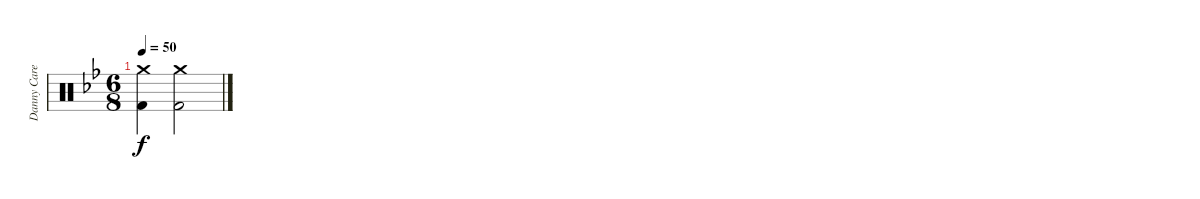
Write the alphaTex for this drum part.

\track ("Danny Carey" "Danny Care") {instrument percussion}
\staff {score}
\articulation defaults
\ts (6 8)
\tempo 50
\clef neutral
\ks bb
("Crash medium (hit)" "Kick (hit) 2").4{dy f} ("Crash medium (hit)" "Kick (hit) 2").2
